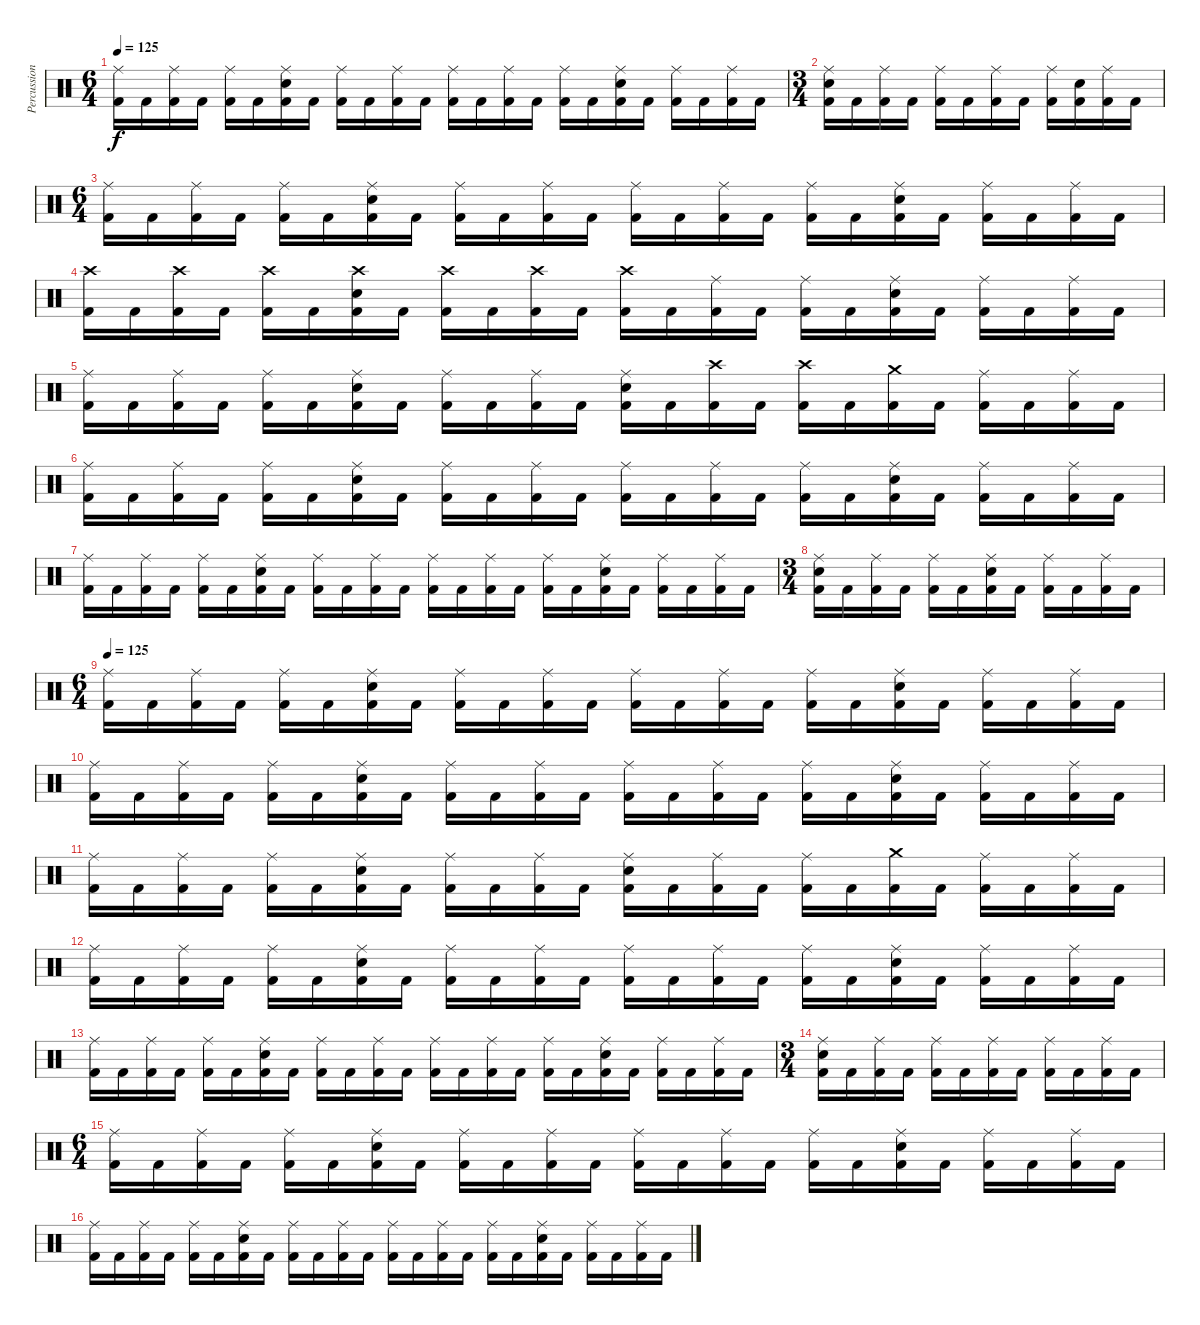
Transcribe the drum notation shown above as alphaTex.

\track ("Percussion" "Percussion") {instrument percussion}
\staff {score}
\articulation defaults
\ts (6 4)
\tempo 125
\clef neutral
\ks c
("Ride (middle)" "Kick (hit) 2").16{dy f} "Kick (hit) 2".16 ("Ride (middle)" "Kick (hit) 2").16 "Kick (hit) 2".16 ("Ride (middle)" "Kick (hit) 2").16 "Kick (hit) 2".16 ("Ride (middle)" "Electric Snare (hit)" "Kick (hit) 2").16 "Kick (hit) 2".16 ("Ride (middle)" "Kick (hit) 2").16 "Kick (hit) 2".16 ("Ride (middle)" "Kick (hit) 2").16 "Kick (hit) 2".16 ("Ride (middle)" "Kick (hit) 2").16 "Kick (hit) 2".16 ("Ride (middle)" "Kick (hit) 2").16 "Kick (hit) 2".16 ("Ride (middle)" "Kick (hit) 2").16 "Kick (hit) 2".16 ("Ride (middle)" "Electric Snare (hit)" "Kick (hit) 2").16 "Kick (hit) 2".16 ("Ride (middle)" "Kick (hit) 2").16 "Kick (hit) 2".16 ("Ride (middle)" "Kick (hit) 2").16 "Kick (hit) 2".16 |
\ts (3 4)
("Ride (middle)" "Electric Snare (hit)" "Kick (hit) 2").16 "Kick (hit) 2".16 ("Ride (middle)" "Kick (hit) 2").16 "Kick (hit) 2".16 ("Ride (middle)" "Kick (hit) 2").16 "Kick (hit) 2".16 ("Ride (middle)" "Kick (hit) 2").16 "Kick (hit) 2".16 ("Ride (middle)" "Kick (hit) 2").16 ("Electric Snare (hit)" "Kick (hit) 2").16 ("Ride (middle)" "Kick (hit) 2").16 "Kick (hit) 2".16 |
\ts (6 4)
("Ride (middle)" "Kick (hit) 2").16 "Kick (hit) 2".16 ("Ride (middle)" "Kick (hit) 2").16 "Kick (hit) 2".16 ("Ride (middle)" "Kick (hit) 2").16 "Kick (hit) 2".16 ("Ride (middle)" "Electric Snare (hit)" "Kick (hit) 2").16 "Kick (hit) 2".16 ("Ride (middle)" "Kick (hit) 2").16 "Kick (hit) 2".16 ("Ride (middle)" "Kick (hit) 2").16 "Kick (hit) 2".16 ("Ride (middle)" "Kick (hit) 2").16 "Kick (hit) 2".16 ("Ride (middle)" "Kick (hit) 2").16 "Kick (hit) 2".16 ("Ride (middle)" "Kick (hit) 2").16 "Kick (hit) 2".16 ("Ride (middle)" "Electric Snare (hit)" "Kick (hit) 2").16 "Kick (hit) 2".16 ("Ride (middle)" "Kick (hit) 2").16 "Kick (hit) 2".16 ("Ride (middle)" "Kick (hit) 2").16 "Kick (hit) 2".16 |
("Crash high (hit)" "Kick (hit) 2").16 "Kick (hit) 2".16 ("Crash high (hit)" "Kick (hit) 2").16 "Kick (hit) 2".16 ("Crash high (hit)" "Kick (hit) 2").16 "Kick (hit) 2".16 ("Crash high (hit)" "Electric Snare (hit)" "Kick (hit) 2").16 "Kick (hit) 2".16 ("Crash high (hit)" "Kick (hit) 2").16 "Kick (hit) 2".16 ("Crash high (hit)" "Kick (hit) 2").16 "Kick (hit) 2".16 ("Crash high (hit)" "Kick (hit) 2").16 "Kick (hit) 2".16 ("Ride (middle)" "Kick (hit) 2").16 "Kick (hit) 2".16 ("Ride (middle)" "Kick (hit) 2").16 "Kick (hit) 2".16 ("Ride (middle)" "Electric Snare (hit)" "Kick (hit) 2").16 "Kick (hit) 2".16 ("Ride (middle)" "Kick (hit) 2").16 "Kick (hit) 2".16 ("Ride (middle)" "Kick (hit) 2").16 "Kick (hit) 2".16 |
("Ride (middle)" "Kick (hit) 2").16 "Kick (hit) 2".16 ("Ride (middle)" "Kick (hit) 2").16 "Kick (hit) 2".16 ("Ride (middle)" "Kick (hit) 2").16 "Kick (hit) 2".16 ("Ride (middle)" "Electric Snare (hit)" "Kick (hit) 2").16 "Kick (hit) 2".16 ("Ride (middle)" "Kick (hit) 2").16 "Kick (hit) 2".16 ("Ride (middle)" "Kick (hit) 2").16 "Kick (hit) 2".16 ("Ride (middle)" "Electric Snare (hit)" "Kick (hit) 2").16 "Kick (hit) 2".16 ("Crash high (hit)" "Kick (hit) 2").16 "Kick (hit) 2".16 ("Crash high (hit)" "Kick (hit) 2").16 "Kick (hit) 2".16 ("Crash medium (hit)" "Kick (hit) 2").16 "Kick (hit) 2".16 ("Ride (middle)" "Kick (hit) 2").16 "Kick (hit) 2".16 ("Ride (middle)" "Kick (hit) 2").16 "Kick (hit) 2".16 |
("Ride (middle)" "Kick (hit) 2").16 "Kick (hit) 2".16 ("Ride (middle)" "Kick (hit) 2").16 "Kick (hit) 2".16 ("Ride (middle)" "Kick (hit) 2").16 "Kick (hit) 2".16 ("Ride (middle)" "Electric Snare (hit)" "Kick (hit) 2").16 "Kick (hit) 2".16 ("Ride (middle)" "Kick (hit) 2").16 "Kick (hit) 2".16 ("Ride (middle)" "Kick (hit) 2").16 "Kick (hit) 2".16 ("Ride (middle)" "Kick (hit) 2").16 "Kick (hit) 2".16 ("Ride (middle)" "Kick (hit) 2").16 "Kick (hit) 2".16 ("Ride (middle)" "Kick (hit) 2").16 "Kick (hit) 2".16 ("Ride (middle)" "Electric Snare (hit)" "Kick (hit) 2").16 "Kick (hit) 2".16 ("Ride (middle)" "Kick (hit) 2").16 "Kick (hit) 2".16 ("Ride (middle)" "Kick (hit) 2").16 "Kick (hit) 2".16 |
("Ride (middle)" "Kick (hit) 2").16 "Kick (hit) 2".16 ("Ride (middle)" "Kick (hit) 2").16 "Kick (hit) 2".16 ("Ride (middle)" "Kick (hit) 2").16 "Kick (hit) 2".16 ("Ride (middle)" "Electric Snare (hit)" "Kick (hit) 2").16 "Kick (hit) 2".16 ("Ride (middle)" "Kick (hit) 2").16 "Kick (hit) 2".16 ("Ride (middle)" "Kick (hit) 2").16 "Kick (hit) 2".16 ("Ride (middle)" "Kick (hit) 2").16 "Kick (hit) 2".16 ("Ride (middle)" "Kick (hit) 2").16 "Kick (hit) 2".16 ("Ride (middle)" "Kick (hit) 2").16 "Kick (hit) 2".16 ("Ride (middle)" "Electric Snare (hit)" "Kick (hit) 2").16 "Kick (hit) 2".16 ("Ride (middle)" "Kick (hit) 2").16 "Kick (hit) 2".16 ("Ride (middle)" "Kick (hit) 2").16 "Kick (hit) 2".16 |
\ts (3 4)
("Ride (middle)" "Electric Snare (hit)" "Kick (hit) 2").16 "Kick (hit) 2".16 ("Ride (middle)" "Kick (hit) 2").16 "Kick (hit) 2".16 ("Ride (middle)" "Kick (hit) 2").16 "Kick (hit) 2".16 ("Ride (middle)" "Electric Snare (hit)" "Kick (hit) 2").16 "Kick (hit) 2".16 ("Ride (middle)" "Kick (hit) 2").16 "Kick (hit) 2".16 ("Ride (middle)" "Kick (hit) 2").16 "Kick (hit) 2".16 |
\ts (6 4)
\tempo 125
("Ride (middle)" "Kick (hit) 2").16{volume 11} "Kick (hit) 2".16 ("Ride (middle)" "Kick (hit) 2").16 "Kick (hit) 2".16 ("Ride (middle)" "Kick (hit) 2").16 "Kick (hit) 2".16 ("Ride (middle)" "Electric Snare (hit)" "Kick (hit) 2").16 "Kick (hit) 2".16 ("Ride (middle)" "Kick (hit) 2").16 "Kick (hit) 2".16 ("Ride (middle)" "Kick (hit) 2").16 "Kick (hit) 2".16 ("Ride (middle)" "Kick (hit) 2").16 "Kick (hit) 2".16 ("Ride (middle)" "Kick (hit) 2").16 "Kick (hit) 2".16 ("Ride (middle)" "Kick (hit) 2").16 "Kick (hit) 2".16 ("Ride (middle)" "Electric Snare (hit)" "Kick (hit) 2").16 "Kick (hit) 2".16 ("Ride (middle)" "Kick (hit) 2").16 "Kick (hit) 2".16 ("Ride (middle)" "Kick (hit) 2").16 "Kick (hit) 2".16 |
("Ride (middle)" "Kick (hit) 2").16 "Kick (hit) 2".16 ("Ride (middle)" "Kick (hit) 2").16 "Kick (hit) 2".16 ("Ride (middle)" "Kick (hit) 2").16 "Kick (hit) 2".16 ("Ride (middle)" "Electric Snare (hit)" "Kick (hit) 2").16 "Kick (hit) 2".16 ("Ride (middle)" "Kick (hit) 2").16 "Kick (hit) 2".16 ("Ride (middle)" "Kick (hit) 2").16 "Kick (hit) 2".16 ("Ride (middle)" "Kick (hit) 2").16 "Kick (hit) 2".16 ("Ride (middle)" "Kick (hit) 2").16 "Kick (hit) 2".16 ("Ride (middle)" "Kick (hit) 2").16 "Kick (hit) 2".16 ("Ride (middle)" "Electric Snare (hit)" "Kick (hit) 2").16 "Kick (hit) 2".16 ("Ride (middle)" "Kick (hit) 2").16 "Kick (hit) 2".16 ("Ride (middle)" "Kick (hit) 2").16 "Kick (hit) 2".16 |
("Ride (middle)" "Kick (hit) 2").16 "Kick (hit) 2".16 ("Ride (middle)" "Kick (hit) 2").16 "Kick (hit) 2".16 ("Ride (middle)" "Kick (hit) 2").16 "Kick (hit) 2".16 ("Ride (middle)" "Electric Snare (hit)" "Kick (hit) 2").16 "Kick (hit) 2".16 ("Ride (middle)" "Kick (hit) 2").16 "Kick (hit) 2".16 ("Ride (middle)" "Kick (hit) 2").16 "Kick (hit) 2".16 ("Ride (middle)" "Electric Snare (hit)" "Kick (hit) 2").16 "Kick (hit) 2".16 ("Ride (middle)" "Kick (hit) 2").16 "Kick (hit) 2".16 ("Ride (middle)" "Kick (hit) 2").16 "Kick (hit) 2".16 ("Crash medium (hit)" "Kick (hit) 2").16 "Kick (hit) 2".16 ("Ride (middle)" "Kick (hit) 2").16 "Kick (hit) 2".16 ("Ride (middle)" "Kick (hit) 2").16 "Kick (hit) 2".16 |
("Ride (middle)" "Kick (hit) 2").16 "Kick (hit) 2".16 ("Ride (middle)" "Kick (hit) 2").16 "Kick (hit) 2".16 ("Ride (middle)" "Kick (hit) 2").16 "Kick (hit) 2".16 ("Ride (middle)" "Electric Snare (hit)" "Kick (hit) 2").16 "Kick (hit) 2".16 ("Ride (middle)" "Kick (hit) 2").16 "Kick (hit) 2".16 ("Ride (middle)" "Kick (hit) 2").16 "Kick (hit) 2".16 ("Ride (middle)" "Kick (hit) 2").16 "Kick (hit) 2".16 ("Ride (middle)" "Kick (hit) 2").16 "Kick (hit) 2".16 ("Ride (middle)" "Kick (hit) 2").16 "Kick (hit) 2".16 ("Ride (middle)" "Electric Snare (hit)" "Kick (hit) 2").16 "Kick (hit) 2".16 ("Ride (middle)" "Kick (hit) 2").16 "Kick (hit) 2".16 ("Ride (middle)" "Kick (hit) 2").16 "Kick (hit) 2".16 |
("Ride (middle)" "Kick (hit) 2").16{volume 9} "Kick (hit) 2".16 ("Ride (middle)" "Kick (hit) 2").16 "Kick (hit) 2".16 ("Ride (middle)" "Kick (hit) 2").16 "Kick (hit) 2".16 ("Ride (middle)" "Electric Snare (hit)" "Kick (hit) 2").16 "Kick (hit) 2".16 ("Ride (middle)" "Kick (hit) 2").16 "Kick (hit) 2".16 ("Ride (middle)" "Kick (hit) 2").16 "Kick (hit) 2".16 ("Ride (middle)" "Kick (hit) 2").16 "Kick (hit) 2".16 ("Ride (middle)" "Kick (hit) 2").16 "Kick (hit) 2".16 ("Ride (middle)" "Kick (hit) 2").16 "Kick (hit) 2".16 ("Ride (middle)" "Electric Snare (hit)" "Kick (hit) 2").16 "Kick (hit) 2".16 ("Ride (middle)" "Kick (hit) 2").16 "Kick (hit) 2".16 ("Ride (middle)" "Kick (hit) 2").16 "Kick (hit) 2".16 |
\ts (3 4)
("Ride (middle)" "Electric Snare (hit)" "Kick (hit) 2").16 "Kick (hit) 2".16 ("Ride (middle)" "Kick (hit) 2").16 "Kick (hit) 2".16 ("Ride (middle)" "Kick (hit) 2").16 "Kick (hit) 2".16 ("Ride (middle)" "Kick (hit) 2").16 "Kick (hit) 2".16 ("Ride (middle)" "Kick (hit) 2").16 "Kick (hit) 2".16 ("Ride (middle)" "Kick (hit) 2").16 "Kick (hit) 2".16 |
\ts (6 4)
("Ride (middle)" "Kick (hit) 2").16 "Kick (hit) 2".16 ("Ride (middle)" "Kick (hit) 2").16 "Kick (hit) 2".16 ("Ride (middle)" "Kick (hit) 2").16 "Kick (hit) 2".16 ("Ride (middle)" "Electric Snare (hit)" "Kick (hit) 2").16 "Kick (hit) 2".16 ("Ride (middle)" "Kick (hit) 2").16 "Kick (hit) 2".16 ("Ride (middle)" "Kick (hit) 2").16 "Kick (hit) 2".16 ("Ride (middle)" "Kick (hit) 2").16 "Kick (hit) 2".16 ("Ride (middle)" "Kick (hit) 2").16 "Kick (hit) 2".16 ("Ride (middle)" "Kick (hit) 2").16 "Kick (hit) 2".16 ("Ride (middle)" "Electric Snare (hit)" "Kick (hit) 2").16 "Kick (hit) 2".16 ("Ride (middle)" "Kick (hit) 2").16 "Kick (hit) 2".16 ("Ride (middle)" "Kick (hit) 2").16 "Kick (hit) 2".16 |
("Ride (middle)" "Kick (hit) 2").16{volume 7} "Kick (hit) 2".16 ("Ride (middle)" "Kick (hit) 2").16 "Kick (hit) 2".16 ("Ride (middle)" "Kick (hit) 2").16 "Kick (hit) 2".16 ("Ride (middle)" "Electric Snare (hit)" "Kick (hit) 2").16 "Kick (hit) 2".16 ("Ride (middle)" "Kick (hit) 2").16 "Kick (hit) 2".16 ("Ride (middle)" "Kick (hit) 2").16 "Kick (hit) 2".16 ("Ride (middle)" "Kick (hit) 2").16 "Kick (hit) 2".16 ("Ride (middle)" "Kick (hit) 2").16 "Kick (hit) 2".16 ("Ride (middle)" "Kick (hit) 2").16 "Kick (hit) 2".16 ("Ride (middle)" "Electric Snare (hit)" "Kick (hit) 2").16 "Kick (hit) 2".16 ("Ride (middle)" "Kick (hit) 2").16 "Kick (hit) 2".16 ("Ride (middle)" "Kick (hit) 2").16 "Kick (hit) 2".16
